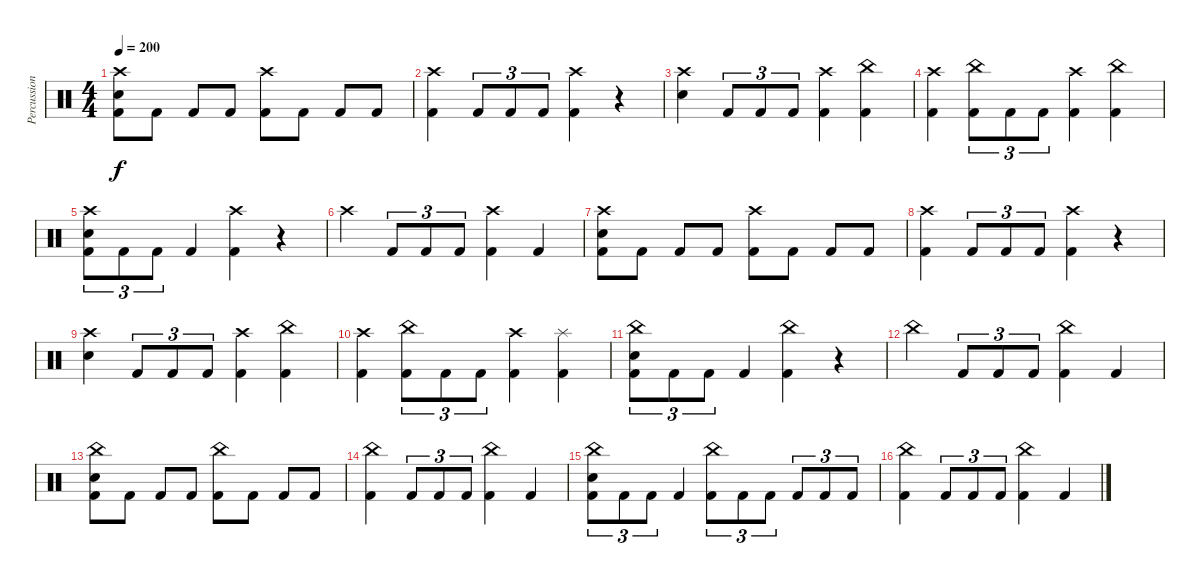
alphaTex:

\track ("Percussion" "Percussion") {instrument percussion}
\staff {score}
\articulation defaults
\ts (4 4)
\tempo 200
\clef neutral
\ks c
("Crash high (hit)" "Electric Snare (hit)" "Kick (hit) 2").8{dy f} "Kick (hit) 2".8 "Kick (hit) 2".8 "Kick (hit) 2".8 ("Crash high (hit)" "Kick (hit) 2").8 "Kick (hit) 2".8 "Kick (hit) 2".8 "Kick (hit) 2".8 |
("Crash high (hit)" "Kick (hit) 2").4 "Kick (hit) 2".8{tu (3 2)} "Kick (hit) 2".8{tu (3 2)} "Kick (hit) 2".8{tu (3 2)} ("Crash high (hit)" "Kick (hit) 2").4 r.4 |
("Crash high (hit)" "Electric Snare (hit)").4 "Kick (hit) 2".8{tu (3 2)} "Kick (hit) 2".8{tu (3 2)} "Kick (hit) 2".8{tu (3 2)} ("Crash high (hit)" "Kick (hit) 2").4 ("China (hit)" "Kick (hit) 2").4 |
("Crash high (hit)" "Kick (hit) 2").4 ("China (hit)" "Kick (hit) 2").8{tu (3 2)} "Kick (hit) 2".8{tu (3 2)} "Kick (hit) 2".8{tu (3 2)} ("Crash high (hit)" "Kick (hit) 2").4 ("China (hit)" "Kick (hit) 2").4 |
("Crash high (hit)" "Electric Snare (hit)" "Kick (hit) 2").8{tu (3 2)} "Kick (hit) 2".8{tu (3 2)} "Kick (hit) 2".8{tu (3 2)} "Kick (hit) 2".4 ("Crash high (hit)" "Kick (hit) 2").4 r.4 |
"Crash high (hit)".4 "Kick (hit) 2".8{tu (3 2)} "Kick (hit) 2".8{tu (3 2)} "Kick (hit) 2".8{tu (3 2)} ("Crash high (hit)" "Kick (hit) 2").4 "Kick (hit) 2".4 |
("Crash high (hit)" "Electric Snare (hit)" "Kick (hit) 2").8 "Kick (hit) 2".8 "Kick (hit) 2".8 "Kick (hit) 2".8 ("Crash high (hit)" "Kick (hit) 2").8 "Kick (hit) 2".8 "Kick (hit) 2".8 "Kick (hit) 2".8 |
("Crash high (hit)" "Kick (hit) 2").4 "Kick (hit) 2".8{tu (3 2)} "Kick (hit) 2".8{tu (3 2)} "Kick (hit) 2".8{tu (3 2)} ("Crash high (hit)" "Kick (hit) 2").4 r.4 |
("Crash high (hit)" "Electric Snare (hit)").4 "Kick (hit) 2".8{tu (3 2)} "Kick (hit) 2".8{tu (3 2)} "Kick (hit) 2".8{tu (3 2)} ("Crash high (hit)" "Kick (hit) 2").4 ("China (hit)" "Kick (hit) 2").4 |
("Crash high (hit)" "Kick (hit) 2").4 ("China (hit)" "Kick (hit) 2").8{tu (3 2)} "Kick (hit) 2".8{tu (3 2)} "Kick (hit) 2".8{tu (3 2)} ("Crash high (hit)" "Kick (hit) 2").4 ("Splash (hit)" "Kick (hit) 2").4 |
("China (hit)" "Electric Snare (hit)" "Kick (hit) 2").8{tu (3 2)} "Kick (hit) 2".8{tu (3 2)} "Kick (hit) 2".8{tu (3 2)} "Kick (hit) 2".4 ("China (hit)" "Kick (hit) 2").4 r.4 |
"China (hit)".4 "Kick (hit) 2".8{tu (3 2)} "Kick (hit) 2".8{tu (3 2)} "Kick (hit) 2".8{tu (3 2)} ("China (hit)" "Kick (hit) 2").4 "Kick (hit) 2".4 |
("China (hit)" "Electric Snare (hit)" "Kick (hit) 2").8 "Kick (hit) 2".8 "Kick (hit) 2".8 "Kick (hit) 2".8 ("China (hit)" "Kick (hit) 2").8 "Kick (hit) 2".8 "Kick (hit) 2".8 "Kick (hit) 2".8 |
("China (hit)" "Kick (hit) 2").4 "Kick (hit) 2".8{tu (3 2)} "Kick (hit) 2".8{tu (3 2)} "Kick (hit) 2".8{tu (3 2)} ("China (hit)" "Kick (hit) 2").4 "Kick (hit) 2".4 |
("China (hit)" "Electric Snare (hit)" "Kick (hit) 2").8{tu (3 2)} "Kick (hit) 2".8{tu (3 2)} "Kick (hit) 2".8{tu (3 2)} "Kick (hit) 2".4 ("China (hit)" "Kick (hit) 2").8{tu (3 2)} "Kick (hit) 2".8{tu (3 2)} "Kick (hit) 2".8{tu (3 2)} "Kick (hit) 2".8{tu (3 2)} "Kick (hit) 2".8{tu (3 2)} "Kick (hit) 2".8{tu (3 2)} |
("China (hit)" "Kick (hit) 2").4 "Kick (hit) 2".8{tu (3 2)} "Kick (hit) 2".8{tu (3 2)} "Kick (hit) 2".8{tu (3 2)} ("China (hit)" "Kick (hit) 2").4 "Kick (hit) 2".4
